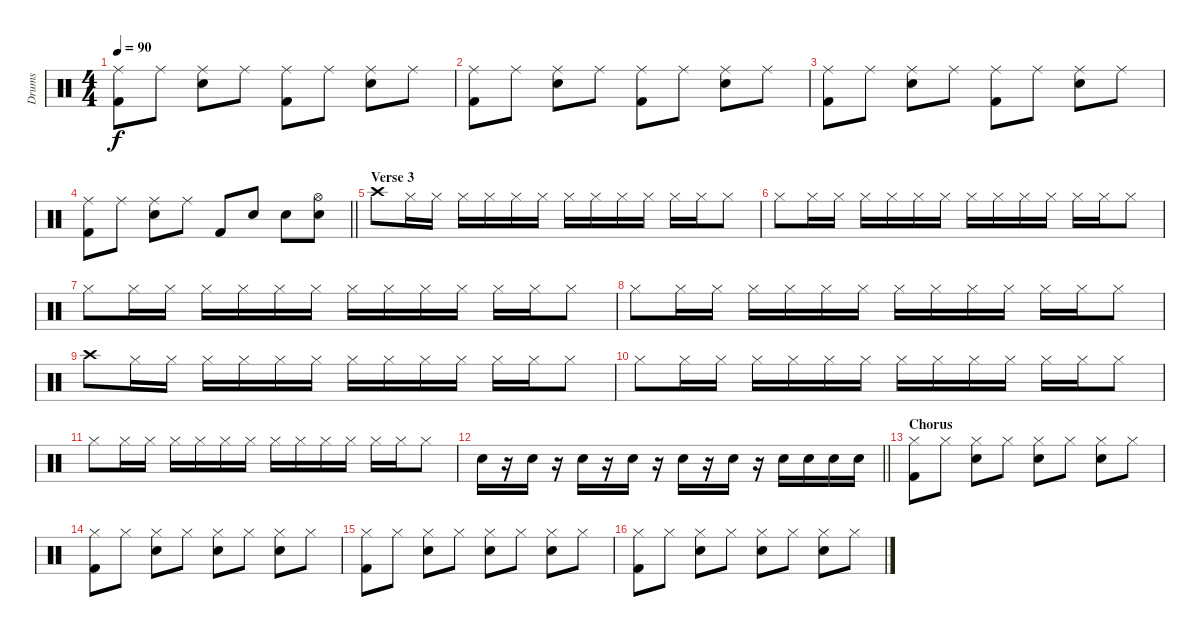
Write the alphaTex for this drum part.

\track ("Drums" "Drums") {instrument percussion}
\staff {score}
\articulation defaults
\ts (4 4)
\tempo 90
\clef neutral
\ks c
("Ride (middle)" "Kick (hit) 2").8{dy f} "Ride (middle)".8 ("Ride (middle)" "Snare (hit) 2").8 "Ride (middle)".8 ("Ride (middle)" "Kick (hit) 2").8 "Ride (middle)".8 ("Ride (middle)" "Snare (hit) 2").8 "Ride (middle)".8 |
("Ride (middle)" "Kick (hit) 2").8 "Ride (middle)".8 ("Ride (middle)" "Snare (hit) 2").8 "Ride (middle)".8 ("Ride (middle)" "Kick (hit) 2").8 "Ride (middle)".8 ("Ride (middle)" "Snare (hit) 2").8 "Ride (middle)".8 |
("Ride (middle)" "Kick (hit) 2").8 "Ride (middle)".8 ("Ride (middle)" "Snare (hit) 2").8 "Ride (middle)".8 ("Ride (middle)" "Kick (hit) 2").8 "Ride (middle)".8 ("Ride (middle)" "Snare (hit) 2").8 "Ride (middle)".8 |
\barLineRight lightlight
("Ride (middle)" "Kick (hit) 2").8 "Ride (middle)".8 ("Ride (middle)" "Snare (hit) 2").8 "Ride (middle)".8 "Kick (hit) 2".8 "Snare (hit) 2".8 "Snare (hit) 2".8 ("Hi-Hat (open)" "Snare (hit) 2").8 |
\section ("" "Verse 3")
"Crash high (hit)".8 "Hi-Hat (closed)".16 "Hi-Hat (closed)".16 "Hi-Hat (closed)".16 "Hi-Hat (closed)".16 "Hi-Hat (closed)".16 "Hi-Hat (closed)".16 "Hi-Hat (closed)".16 "Hi-Hat (closed)".16 "Hi-Hat (closed)".16 "Hi-Hat (closed)".16 "Hi-Hat (closed)".16 "Hi-Hat (closed)".16 "Hi-Hat (closed)".8 |
"Hi-Hat (closed)".8 "Hi-Hat (closed)".16 "Hi-Hat (closed)".16 "Hi-Hat (closed)".16 "Hi-Hat (closed)".16 "Hi-Hat (closed)".16 "Hi-Hat (closed)".16 "Hi-Hat (closed)".16 "Hi-Hat (closed)".16 "Hi-Hat (closed)".16 "Hi-Hat (closed)".16 "Hi-Hat (closed)".16 "Hi-Hat (closed)".16 "Hi-Hat (closed)".8 |
"Hi-Hat (closed)".8 "Hi-Hat (closed)".16 "Hi-Hat (closed)".16 "Hi-Hat (closed)".16 "Hi-Hat (closed)".16 "Hi-Hat (closed)".16 "Hi-Hat (closed)".16 "Hi-Hat (closed)".16 "Hi-Hat (closed)".16 "Hi-Hat (closed)".16 "Hi-Hat (closed)".16 "Hi-Hat (closed)".16 "Hi-Hat (closed)".16 "Hi-Hat (closed)".8 |
"Hi-Hat (closed)".8 "Hi-Hat (closed)".16 "Hi-Hat (closed)".16 "Hi-Hat (closed)".16 "Hi-Hat (closed)".16 "Hi-Hat (closed)".16 "Hi-Hat (closed)".16 "Hi-Hat (closed)".16 "Hi-Hat (closed)".16 "Hi-Hat (closed)".16 "Hi-Hat (closed)".16 "Hi-Hat (closed)".16 "Hi-Hat (closed)".16 "Hi-Hat (closed)".8 |
"Crash high (hit)".8 "Hi-Hat (closed)".16 "Hi-Hat (closed)".16 "Hi-Hat (closed)".16 "Hi-Hat (closed)".16 "Hi-Hat (closed)".16 "Hi-Hat (closed)".16 "Hi-Hat (closed)".16 "Hi-Hat (closed)".16 "Hi-Hat (closed)".16 "Hi-Hat (closed)".16 "Hi-Hat (closed)".16 "Hi-Hat (closed)".16 "Hi-Hat (closed)".8 |
"Hi-Hat (closed)".8 "Hi-Hat (closed)".16 "Hi-Hat (closed)".16 "Hi-Hat (closed)".16 "Hi-Hat (closed)".16 "Hi-Hat (closed)".16 "Hi-Hat (closed)".16 "Hi-Hat (closed)".16 "Hi-Hat (closed)".16 "Hi-Hat (closed)".16 "Hi-Hat (closed)".16 "Hi-Hat (closed)".16 "Hi-Hat (closed)".16 "Hi-Hat (closed)".8 |
"Hi-Hat (closed)".8 "Hi-Hat (closed)".16 "Hi-Hat (closed)".16 "Hi-Hat (closed)".16 "Hi-Hat (closed)".16 "Hi-Hat (closed)".16 "Hi-Hat (closed)".16 "Hi-Hat (closed)".16 "Hi-Hat (closed)".16 "Hi-Hat (closed)".16 "Hi-Hat (closed)".16 "Hi-Hat (closed)".16 "Hi-Hat (closed)".16 "Hi-Hat (closed)".8 |
\barLineRight lightlight "Snare (hit) 2".16
r.16 "Snare (hit) 2".16 r.16 "Snare (hit) 2".16 r.16 "Snare (hit) 2".16 r.16 "Snare (hit) 2".16 r.16 "Snare (hit) 2".16 r.16 "Snare (hit) 2".16 "Snare (hit) 2".16 "Snare (hit) 2".16 "Snare (hit) 2".16 |
\section ("" "Chorus")
("Hi-Hat (closed)" "Kick (hit) 2").8 "Hi-Hat (closed)".8 ("Hi-Hat (closed)" "Snare (hit) 2").8 "Hi-Hat (closed)".8 ("Hi-Hat (closed)" "Snare (hit) 2").8 "Hi-Hat (closed)".8 ("Hi-Hat (closed)" "Snare (hit) 2").8 "Hi-Hat (closed)".8 |
("Hi-Hat (closed)" "Kick (hit) 2").8 "Hi-Hat (closed)".8 ("Hi-Hat (closed)" "Snare (hit) 2").8 "Hi-Hat (closed)".8 ("Hi-Hat (closed)" "Snare (hit) 2").8 "Hi-Hat (closed)".8 ("Hi-Hat (closed)" "Snare (hit) 2").8 "Hi-Hat (closed)".8 |
("Hi-Hat (closed)" "Kick (hit) 2").8 "Hi-Hat (closed)".8 ("Hi-Hat (closed)" "Snare (hit) 2").8 "Hi-Hat (closed)".8 ("Hi-Hat (closed)" "Snare (hit) 2").8 "Hi-Hat (closed)".8 ("Hi-Hat (closed)" "Snare (hit) 2").8 "Hi-Hat (closed)".8 |
("Hi-Hat (closed)" "Kick (hit) 2").8 "Hi-Hat (closed)".8 ("Hi-Hat (closed)" "Snare (hit) 2").8 "Hi-Hat (closed)".8 ("Hi-Hat (closed)" "Snare (hit) 2").8 "Hi-Hat (closed)".8 ("Hi-Hat (closed)" "Snare (hit) 2").8 "Hi-Hat (closed)".8
